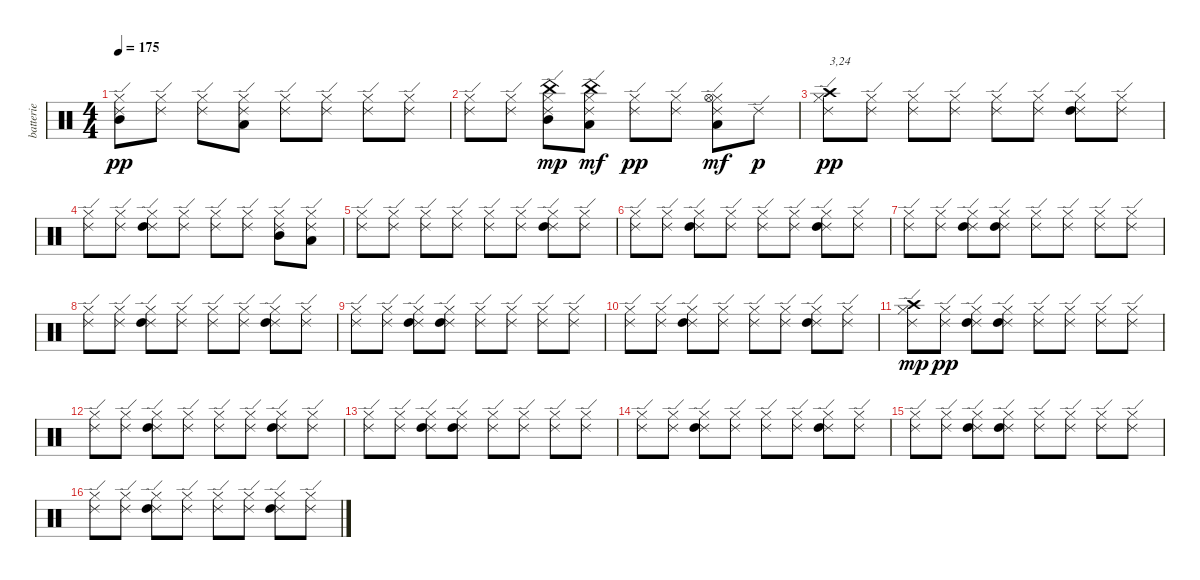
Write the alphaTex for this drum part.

\track ("batterie" "batterie") {instrument percussion}
\staff {score}
\articulation defaults
\ts (4 4)
\tempo 175
\clef neutral
\ks c
("Ride (edge) 2" "Mid Tom (hit)" "Hi-Hat (closed)").8{dy pp} ("Ride (edge) 2" "Hi-Hat (closed)").8 ("Ride (edge) 2" "Hi-Hat (closed)").8 ("Ride (edge) 2" "Low Tom (hit)" "Hi-Hat (closed)").8 ("Ride (edge) 2" "Hi-Hat (closed)").8 ("Ride (edge) 2" "Hi-Hat (closed)").8 ("Ride (edge) 2" "Hi-Hat (closed)").8 ("Ride (edge) 2" "Hi-Hat (closed)").8 |
("Ride (edge) 2" "Hi-Hat (closed)").8 ("Ride (edge) 2" "Hi-Hat (closed)").8 ("Ride (edge) 2" "Mid Tom (hit)" "Hi-Hat (closed)" "China (hit)").8{dy mp} ("Ride (edge) 2" "Low Tom (hit)" "Hi-Hat (closed)" "China (hit)").8{dy mf} ("Ride (edge) 2" "Hi-Hat (closed)").8{dy pp} ("Ride (edge) 2" "Hi-Hat (closed)").8 ("Ride (edge) 2" "Low Tom (hit)" "Hi-Hat (closed)" "Hi-Hat (open)").8{dy mf} "Ride (edge) 2".8{dy p} |
("Ride (edge) 2" "Crash high (hit)" "Hi-Hat (closed)").8{txt "3,24" dy pp} ("Ride (edge) 2" "Hi-Hat (closed)").8 ("Ride (edge) 2" "Hi-Hat (closed)").8 ("Ride (edge) 2" "Hi-Hat (closed)").8 ("Ride (edge) 2" "Hi-Hat (closed)").8 ("Ride (edge) 2" "Hi-Hat (closed)").8 ("Ride (edge) 2" "High Tom (hit)" "Hi-Hat (closed)").8 ("Ride (edge) 2" "Hi-Hat (closed)").8 |
("Ride (edge) 2" "Hi-Hat (closed)").8 ("Ride (edge) 2" "Hi-Hat (closed)").8 ("Ride (edge) 2" "High Tom (hit)" "Hi-Hat (closed)").8 ("Ride (edge) 2" "Hi-Hat (closed)").8 ("Ride (edge) 2" "Hi-Hat (closed)").8 ("Ride (edge) 2" "Hi-Hat (closed)").8 ("Ride (edge) 2" "Mid Tom (hit)" "Hi-Hat (closed)").8 ("Ride (edge) 2" "Low Tom (hit)" "Hi-Hat (closed)").8 |
("Ride (edge) 2" "Hi-Hat (closed)").8 ("Ride (edge) 2" "Hi-Hat (closed)").8 ("Ride (edge) 2" "Hi-Hat (closed)").8 ("Ride (edge) 2" "Hi-Hat (closed)").8 ("Ride (edge) 2" "Hi-Hat (closed)").8 ("Ride (edge) 2" "Hi-Hat (closed)").8 ("Ride (edge) 2" "High Tom (hit)" "Hi-Hat (closed)").8 ("Ride (edge) 2" "Hi-Hat (closed)").8 |
("Ride (edge) 2" "Hi-Hat (closed)").8 ("Ride (edge) 2" "Hi-Hat (closed)").8 ("Ride (edge) 2" "High Tom (hit)" "Hi-Hat (closed)").8 ("Ride (edge) 2" "Hi-Hat (closed)").8 ("Ride (edge) 2" "Hi-Hat (closed)").8 ("Ride (edge) 2" "Hi-Hat (closed)").8 ("Ride (edge) 2" "High Tom (hit)" "Hi-Hat (closed)").8 ("Ride (edge) 2" "Hi-Hat (closed)").8 |
("Ride (edge) 2" "Hi-Hat (closed)").8 ("Ride (edge) 2" "Hi-Hat (closed)").8 ("Ride (edge) 2" "High Tom (hit)" "Hi-Hat (closed)").8 ("Ride (edge) 2" "High Tom (hit)" "Hi-Hat (closed)").8 ("Ride (edge) 2" "Hi-Hat (closed)").8 ("Ride (edge) 2" "Hi-Hat (closed)").8 ("Ride (edge) 2" "Hi-Hat (closed)").8 ("Ride (edge) 2" "Hi-Hat (closed)").8 |
("Ride (edge) 2" "Hi-Hat (closed)").8 ("Ride (edge) 2" "Hi-Hat (closed)").8 ("Ride (edge) 2" "High Tom (hit)" "Hi-Hat (closed)").8 ("Ride (edge) 2" "Hi-Hat (closed)").8 ("Ride (edge) 2" "Hi-Hat (closed)").8 ("Ride (edge) 2" "Hi-Hat (closed)").8 ("Ride (edge) 2" "High Tom (hit)" "Hi-Hat (closed)").8 ("Ride (edge) 2" "Hi-Hat (closed)").8 |
("Ride (edge) 2" "Hi-Hat (closed)").8 ("Ride (edge) 2" "Hi-Hat (closed)").8 ("Ride (edge) 2" "High Tom (hit)" "Hi-Hat (closed)").8 ("Ride (edge) 2" "High Tom (hit)" "Hi-Hat (closed)").8 ("Ride (edge) 2" "Hi-Hat (closed)").8 ("Ride (edge) 2" "Hi-Hat (closed)").8 ("Ride (edge) 2" "Hi-Hat (closed)").8 ("Ride (edge) 2" "Hi-Hat (closed)").8 |
("Ride (edge) 2" "Hi-Hat (closed)").8 ("Ride (edge) 2" "Hi-Hat (closed)").8 ("Ride (edge) 2" "High Tom (hit)" "Hi-Hat (closed)").8 ("Ride (edge) 2" "Hi-Hat (closed)").8 ("Ride (edge) 2" "Hi-Hat (closed)").8 ("Ride (edge) 2" "Hi-Hat (closed)").8 ("Ride (edge) 2" "High Tom (hit)" "Hi-Hat (closed)").8 ("Ride (edge) 2" "Hi-Hat (closed)").8 |
("Ride (edge) 2" "Hi-Hat (closed)" "Crash high (hit)").8{dy mp} ("Ride (edge) 2" "Hi-Hat (closed)").8{dy pp} ("Ride (edge) 2" "High Tom (hit)" "Hi-Hat (closed)").8 ("Ride (edge) 2" "High Tom (hit)" "Hi-Hat (closed)").8 ("Ride (edge) 2" "Hi-Hat (closed)").8 ("Ride (edge) 2" "Hi-Hat (closed)").8 ("Ride (edge) 2" "Hi-Hat (closed)").8 ("Ride (edge) 2" "Hi-Hat (closed)").8 |
("Ride (edge) 2" "Hi-Hat (closed)").8 ("Ride (edge) 2" "Hi-Hat (closed)").8 ("Ride (edge) 2" "High Tom (hit)" "Hi-Hat (closed)").8 ("Ride (edge) 2" "Hi-Hat (closed)").8 ("Ride (edge) 2" "Hi-Hat (closed)").8 ("Ride (edge) 2" "Hi-Hat (closed)").8 ("Ride (edge) 2" "High Tom (hit)" "Hi-Hat (closed)").8 ("Ride (edge) 2" "Hi-Hat (closed)").8 |
("Ride (edge) 2" "Hi-Hat (closed)").8 ("Ride (edge) 2" "Hi-Hat (closed)").8 ("Ride (edge) 2" "High Tom (hit)" "Hi-Hat (closed)").8 ("Ride (edge) 2" "High Tom (hit)" "Hi-Hat (closed)").8 ("Ride (edge) 2" "Hi-Hat (closed)").8 ("Ride (edge) 2" "Hi-Hat (closed)").8 ("Ride (edge) 2" "Hi-Hat (closed)").8 ("Ride (edge) 2" "Hi-Hat (closed)").8 |
("Ride (edge) 2" "Hi-Hat (closed)").8 ("Ride (edge) 2" "Hi-Hat (closed)").8 ("Ride (edge) 2" "High Tom (hit)" "Hi-Hat (closed)").8 ("Ride (edge) 2" "Hi-Hat (closed)").8 ("Ride (edge) 2" "Hi-Hat (closed)").8 ("Ride (edge) 2" "Hi-Hat (closed)").8 ("Ride (edge) 2" "High Tom (hit)" "Hi-Hat (closed)").8 ("Ride (edge) 2" "Hi-Hat (closed)").8 |
("Ride (edge) 2" "Hi-Hat (closed)").8 ("Ride (edge) 2" "Hi-Hat (closed)").8 ("Ride (edge) 2" "High Tom (hit)" "Hi-Hat (closed)").8 ("Ride (edge) 2" "High Tom (hit)" "Hi-Hat (closed)").8 ("Ride (edge) 2" "Hi-Hat (closed)").8 ("Ride (edge) 2" "Hi-Hat (closed)").8 ("Ride (edge) 2" "Hi-Hat (closed)").8 ("Ride (edge) 2" "Hi-Hat (closed)").8 |
("Ride (edge) 2" "Hi-Hat (closed)").8 ("Ride (edge) 2" "Hi-Hat (closed)").8 ("Ride (edge) 2" "High Tom (hit)" "Hi-Hat (closed)").8 ("Ride (edge) 2" "Hi-Hat (closed)").8 ("Ride (edge) 2" "Hi-Hat (closed)").8 ("Ride (edge) 2" "Hi-Hat (closed)").8 ("Ride (edge) 2" "High Tom (hit)" "Hi-Hat (closed)").8 ("Ride (edge) 2" "Hi-Hat (closed)").8
